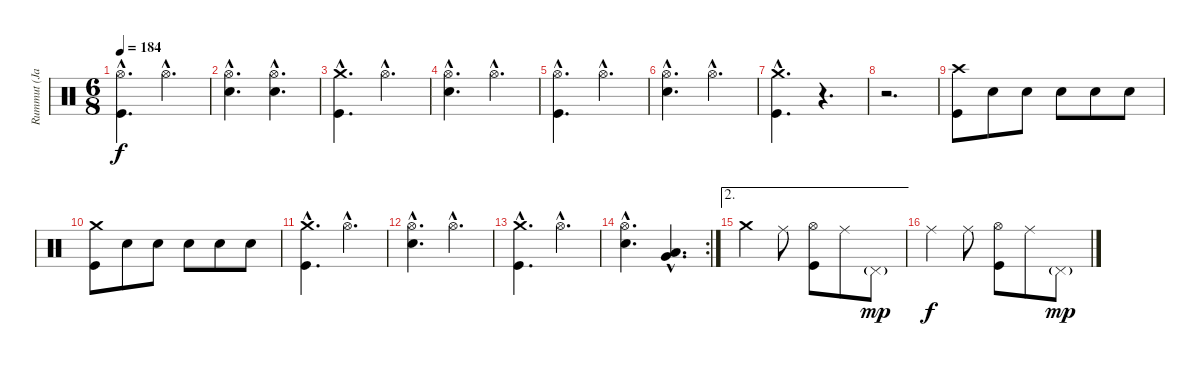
\track ("Rummut (Janne)" "Rummut (Ja") {instrument percussion}
\staff {score}
\articulation defaults
\ts (6 8)
\tempo 184
\clef neutral
\ks c
("Hi-Hat (open)"{hac} "Kick (hit)"{hac}).4{d dy f} "Hi-Hat (open)"{hac}.4{d} |
("Hi-Hat (open)"{hac} "Snare (hit) 2"{hac}).4{d} ("Hi-Hat (open)"{hac} "Snare (hit) 2"{hac}).4{d} |
("Crash medium (hit)"{hac} "Kick (hit)"{hac}).4{d} "Hi-Hat (open)"{hac}.4{d} |
("Hi-Hat (open)"{hac} "Snare (hit) 2"{hac}).4{d} "Hi-Hat (open)"{hac}.4{d} |
("Hi-Hat (open)"{hac} "Kick (hit)"{hac}).4{d} "Hi-Hat (open)"{hac}.4{d} |
("Hi-Hat (open)"{hac} "Snare (hit) 2"{hac}).4{d} "Hi-Hat (open)"{hac}.4{d} |
("Crash medium (hit)"{hac} "Kick (hit)"{hac}).4{d} r.4{d} |
r.2{d} |
("Crash high (hit)" "Kick (hit)").8 "Snare (hit) 2".8 "Snare (hit) 2".8 "Snare (hit) 2".8 "Snare (hit) 2".8 "Snare (hit) 2".8 |
("Crash medium (hit)" "Kick (hit)").8 "Snare (hit) 2".8 "Snare (hit) 2".8 "Snare (hit) 2".8 "Snare (hit) 2".8 "Snare (hit) 2".8 |
("Crash medium (hit)"{hac} "Kick (hit)"{hac}).4{d} "Hi-Hat (open)"{hac}.4{d} |
("Hi-Hat (open)"{hac} "Snare (hit) 2"{hac}).4{d} "Hi-Hat (open)"{hac}.4{d} |
("Crash medium (hit)"{hac} "Kick (hit)"{hac}).4{d} "Hi-Hat (open)"{hac}.4{d} |
\rc 2
("Hi-Hat (open)"{hac} "Snare (hit) 2"{hac}).4{d} ("Low Tom (hit)"{hac} "Very Low Tom (hit)"{hac}).4{d} |
\ae 2 "Crash medium (hit)".4 "Ride (middle)".8
("Hi-Hat (open)" "Kick (hit)").8 "Ride (middle)".8 "Pedal Hi-Hat (hit)"{g}.8{dy mp} |
"Ride (middle)".4{dy f} "Ride (middle)".8 ("Hi-Hat (open)" "Kick (hit)").8 "Ride (middle)".8 "Pedal Hi-Hat (hit)"{g}.8{dy mp}
